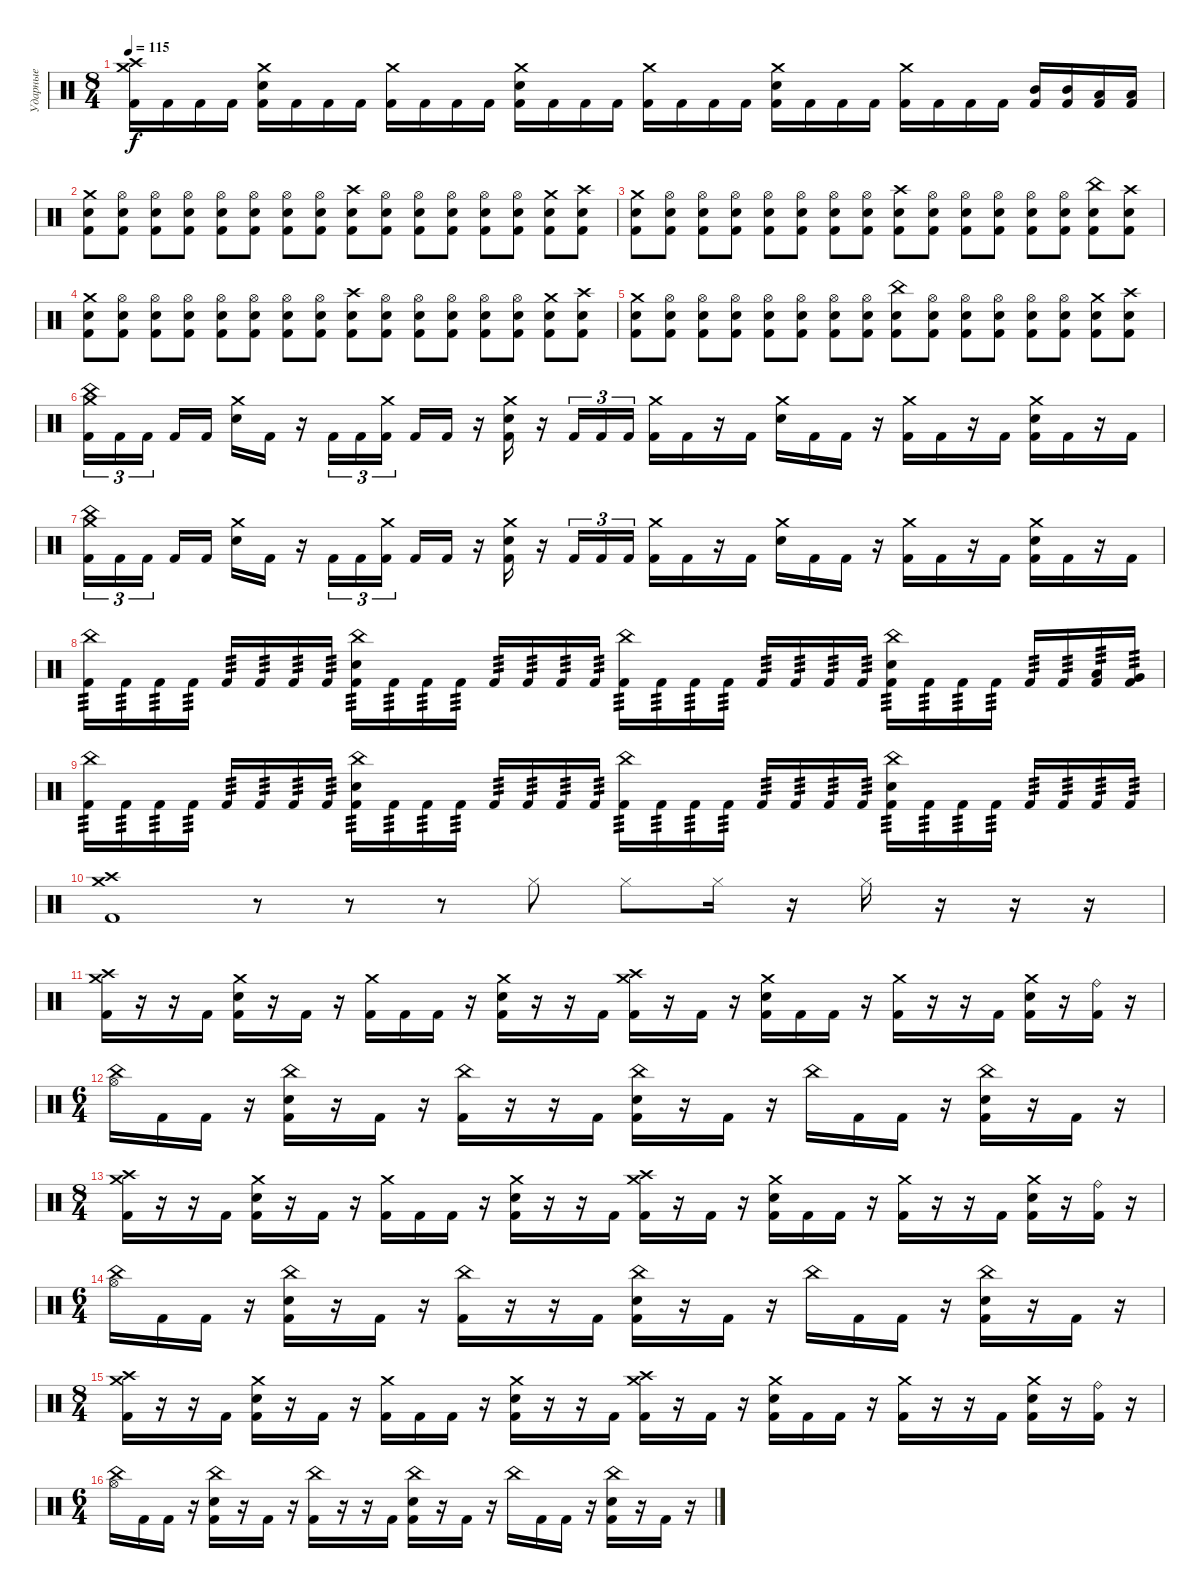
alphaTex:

\track ("Ударные" "Ударные") {instrument percussion}
\staff {score}
\articulation defaults
\ts (8 4)
\tempo 115
\clef neutral
\ks c
("Crash medium (hit)" "Crash high (hit)" "Kick (hit) 2").16{dy f} "Kick (hit) 2".16 "Kick (hit) 2".16 "Kick (hit) 2".16 ("Crash medium (hit)" "Electric Snare (hit)" "Kick (hit) 2").16 "Kick (hit) 2".16 "Kick (hit) 2".16 "Kick (hit) 2".16 ("Crash medium (hit)" "Kick (hit) 2").16 "Kick (hit) 2".16 "Kick (hit) 2".16 "Kick (hit) 2".16 ("Crash medium (hit)" "Electric Snare (hit)" "Kick (hit) 2").16 "Kick (hit) 2".16 "Kick (hit) 2".16 "Kick (hit) 2".16 ("Crash medium (hit)" "Kick (hit) 2").16 "Kick (hit) 2".16 "Kick (hit) 2".16 "Kick (hit) 2".16 ("Crash medium (hit)" "Electric Snare (hit)" "Kick (hit) 2").16 "Kick (hit) 2".16 "Kick (hit) 2".16 "Kick (hit) 2".16 ("Crash medium (hit)" "Kick (hit) 2").16 "Kick (hit) 2".16 "Kick (hit) 2".16 "Kick (hit) 2".16 ("Mid Tom (hit)" "Kick (hit) 2").16 ("Mid Tom (hit)" "Kick (hit) 2").16 ("Low Tom (hit)" "Kick (hit) 2").16 ("Low Tom (hit)" "Kick (hit) 2").16 |
("Crash medium (hit)" "Electric Snare (hit)" "Kick (hit) 2").8 ("Hi-Hat (open)" "Electric Snare (hit)" "Kick (hit) 2").8 ("Hi-Hat (open)" "Electric Snare (hit)" "Kick (hit) 2").8 ("Hi-Hat (open)" "Electric Snare (hit)" "Kick (hit) 2").8 ("Hi-Hat (open)" "Electric Snare (hit)" "Kick (hit) 2").8 ("Hi-Hat (open)" "Electric Snare (hit)" "Kick (hit) 2").8 ("Hi-Hat (open)" "Electric Snare (hit)" "Kick (hit) 2").8 ("Hi-Hat (open)" "Electric Snare (hit)" "Kick (hit) 2").8 ("Crash high (hit)" "Electric Snare (hit)" "Kick (hit) 2").8 ("Hi-Hat (open)" "Electric Snare (hit)" "Kick (hit) 2").8 ("Hi-Hat (open)" "Electric Snare (hit)" "Kick (hit) 2").8 ("Hi-Hat (open)" "Electric Snare (hit)" "Kick (hit) 2").8 ("Hi-Hat (open)" "Electric Snare (hit)" "Kick (hit) 2").8 ("Hi-Hat (open)" "Electric Snare (hit)" "Kick (hit) 2").8 ("Crash medium (hit)" "Electric Snare (hit)" "Kick (hit) 2").8 ("Crash high (hit)" "Electric Snare (hit)" "Kick (hit) 2").8 |
("Crash medium (hit)" "Electric Snare (hit)" "Kick (hit) 2").8 ("Hi-Hat (open)" "Electric Snare (hit)" "Kick (hit) 2").8 ("Hi-Hat (open)" "Electric Snare (hit)" "Kick (hit) 2").8 ("Hi-Hat (open)" "Electric Snare (hit)" "Kick (hit) 2").8 ("Hi-Hat (open)" "Electric Snare (hit)" "Kick (hit) 2").8 ("Hi-Hat (open)" "Electric Snare (hit)" "Kick (hit) 2").8 ("Hi-Hat (open)" "Electric Snare (hit)" "Kick (hit) 2").8 ("Hi-Hat (open)" "Electric Snare (hit)" "Kick (hit) 2").8 ("Crash high (hit)" "Electric Snare (hit)" "Kick (hit) 2").8 ("Hi-Hat (open)" "Electric Snare (hit)" "Kick (hit) 2").8 ("Hi-Hat (open)" "Electric Snare (hit)" "Kick (hit) 2").8 ("Hi-Hat (open)" "Electric Snare (hit)" "Kick (hit) 2").8 ("Hi-Hat (open)" "Electric Snare (hit)" "Kick (hit) 2").8 ("Hi-Hat (open)" "Electric Snare (hit)" "Kick (hit) 2").8 ("China (hit)" "Electric Snare (hit)" "Kick (hit) 2").8 ("Crash high (hit)" "Electric Snare (hit)" "Kick (hit) 2").8 |
("Crash medium (hit)" "Electric Snare (hit)" "Kick (hit) 2").8 ("Hi-Hat (open)" "Electric Snare (hit)" "Kick (hit) 2").8 ("Hi-Hat (open)" "Electric Snare (hit)" "Kick (hit) 2").8 ("Hi-Hat (open)" "Electric Snare (hit)" "Kick (hit) 2").8 ("Hi-Hat (open)" "Electric Snare (hit)" "Kick (hit) 2").8 ("Hi-Hat (open)" "Electric Snare (hit)" "Kick (hit) 2").8 ("Hi-Hat (open)" "Electric Snare (hit)" "Kick (hit) 2").8 ("Hi-Hat (open)" "Electric Snare (hit)" "Kick (hit) 2").8 ("Crash high (hit)" "Electric Snare (hit)" "Kick (hit) 2").8 ("Hi-Hat (open)" "Electric Snare (hit)" "Kick (hit) 2").8 ("Hi-Hat (open)" "Electric Snare (hit)" "Kick (hit) 2").8 ("Hi-Hat (open)" "Electric Snare (hit)" "Kick (hit) 2").8 ("Hi-Hat (open)" "Electric Snare (hit)" "Kick (hit) 2").8 ("Hi-Hat (open)" "Electric Snare (hit)" "Kick (hit) 2").8 ("Crash medium (hit)" "Electric Snare (hit)" "Kick (hit) 2").8 ("Crash high (hit)" "Electric Snare (hit)" "Kick (hit) 2").8 |
("Crash medium (hit)" "Electric Snare (hit)" "Kick (hit) 2").8 ("Hi-Hat (open)" "Electric Snare (hit)" "Kick (hit) 2").8 ("Hi-Hat (open)" "Electric Snare (hit)" "Kick (hit) 2").8 ("Hi-Hat (open)" "Electric Snare (hit)" "Kick (hit) 2").8 ("Hi-Hat (open)" "Electric Snare (hit)" "Kick (hit) 2").8 ("Hi-Hat (open)" "Electric Snare (hit)" "Kick (hit) 2").8 ("Hi-Hat (open)" "Electric Snare (hit)" "Kick (hit) 2").8 ("Hi-Hat (open)" "Electric Snare (hit)" "Kick (hit) 2").8 ("China (hit)" "Electric Snare (hit)" "Kick (hit) 2").8 ("Hi-Hat (open)" "Electric Snare (hit)" "Kick (hit) 2").8 ("Hi-Hat (open)" "Electric Snare (hit)" "Kick (hit) 2").8 ("Hi-Hat (open)" "Electric Snare (hit)" "Kick (hit) 2").8 ("Hi-Hat (open)" "Electric Snare (hit)" "Kick (hit) 2").8 ("Hi-Hat (open)" "Electric Snare (hit)" "Kick (hit) 2").8 ("Crash medium (hit)" "Electric Snare (hit)" "Kick (hit) 2").8 ("Crash high (hit)" "Electric Snare (hit)" "Kick (hit) 2").8 |
("Crash medium (hit)" "China (hit)" "Kick (hit) 2").16{tu (3 2)} "Kick (hit) 2".16{tu (3 2)} "Kick (hit) 2".16{tu (3 2) beam splitsecondary} "Kick (hit) 2".16 "Kick (hit) 2".16 ("Crash medium (hit)" "Electric Snare (hit)").16 "Kick (hit) 2".16 r.16 "Kick (hit) 2".16{tu (3 2)} "Kick (hit) 2".16{tu (3 2)} ("Crash medium (hit)" "Kick (hit) 2").16{tu (3 2) beam splitsecondary} "Kick (hit) 2".16 "Kick (hit) 2".16 r.16 ("Crash medium (hit)" "Electric Snare (hit)" "Kick (hit) 2").16 r.16 "Kick (hit) 2".16{tu (3 2)} "Kick (hit) 2".16{tu (3 2)} "Kick (hit) 2".16{tu (3 2)} ("Crash medium (hit)" "Kick (hit) 2").16 "Kick (hit) 2".16 r.16 "Kick (hit) 2".16 ("Crash medium (hit)" "Electric Snare (hit)").16 "Kick (hit) 2".16 "Kick (hit) 2".16 r.16 ("Crash medium (hit)" "Kick (hit) 2").16 "Kick (hit) 2".16 r.16 "Kick (hit) 2".16 ("Crash medium (hit)" "Electric Snare (hit)" "Kick (hit) 2").16 "Kick (hit) 2".16 r.16 "Kick (hit) 2".16 |
("Crash medium (hit)" "China (hit)" "Kick (hit) 2").16{tu (3 2)} "Kick (hit) 2".16{tu (3 2)} "Kick (hit) 2".16{tu (3 2) beam splitsecondary} "Kick (hit) 2".16 "Kick (hit) 2".16 ("Crash medium (hit)" "Electric Snare (hit)").16 "Kick (hit) 2".16 r.16 "Kick (hit) 2".16{tu (3 2)} "Kick (hit) 2".16{tu (3 2)} ("Crash medium (hit)" "Kick (hit) 2").16{tu (3 2) beam splitsecondary} "Kick (hit) 2".16 "Kick (hit) 2".16 r.16 ("Crash medium (hit)" "Electric Snare (hit)" "Kick (hit) 2").16 r.16 "Kick (hit) 2".16{tu (3 2)} "Kick (hit) 2".16{tu (3 2)} "Kick (hit) 2".16{tu (3 2)} ("Crash medium (hit)" "Kick (hit) 2").16 "Kick (hit) 2".16 r.16 "Kick (hit) 2".16 ("Crash medium (hit)" "Electric Snare (hit)").16 "Kick (hit) 2".16 "Kick (hit) 2".16 r.16 ("Crash medium (hit)" "Kick (hit) 2").16 "Kick (hit) 2".16 r.16 "Kick (hit) 2".16 ("Crash medium (hit)" "Electric Snare (hit)" "Kick (hit) 2").16 "Kick (hit) 2".16 r.16 "Kick (hit) 2".16 |
("China (hit)" "Kick (hit) 2").16{tp 3} "Kick (hit) 2".16{tp 3} "Kick (hit) 2".16{tp 3} "Kick (hit) 2".16{tp 3} "Kick (hit) 2".16{tp 3} "Kick (hit) 2".16{tp 3} "Kick (hit) 2".16{tp 3} "Kick (hit) 2".16{tp 3} ("China (hit)" "Electric Snare (hit)" "Kick (hit) 2").16{tp 3} "Kick (hit) 2".16{tp 3} "Kick (hit) 2".16{tp 3} "Kick (hit) 2".16{tp 3} "Kick (hit) 2".16{tp 3} "Kick (hit) 2".16{tp 3} "Kick (hit) 2".16{tp 3} "Kick (hit) 2".16{tp 3} ("China (hit)" "Kick (hit) 2").16{tp 3} "Kick (hit) 2".16{tp 3} "Kick (hit) 2".16{tp 3} "Kick (hit) 2".16{tp 3} "Kick (hit) 2".16{tp 3} "Kick (hit) 2".16{tp 3} "Kick (hit) 2".16{tp 3} "Kick (hit) 2".16{tp 3} ("China (hit)" "Electric Snare (hit)" "Kick (hit) 2").16{tp 3} "Kick (hit) 2".16{tp 3} "Kick (hit) 2".16{tp 3} "Kick (hit) 2".16{tp 3} "Kick (hit) 2".16{tp 3} "Kick (hit) 2".16{tp 3} ("Low Tom (hit)" "Kick (hit) 2").16{tp 3} ("Very Low Tom (hit)" "Kick (hit) 2").16{tp 3} |
("China (hit)" "Kick (hit) 2").16{tp 3} "Kick (hit) 2".16{tp 3} "Kick (hit) 2".16{tp 3} "Kick (hit) 2".16{tp 3} "Kick (hit) 2".16{tp 3} "Kick (hit) 2".16{tp 3} "Kick (hit) 2".16{tp 3} "Kick (hit) 2".16{tp 3} ("China (hit)" "Electric Snare (hit)" "Kick (hit) 2").16{tp 3} "Kick (hit) 2".16{tp 3} "Kick (hit) 2".16{tp 3} "Kick (hit) 2".16{tp 3} "Kick (hit) 2".16{tp 3} "Kick (hit) 2".16{tp 3} "Kick (hit) 2".16{tp 3} "Kick (hit) 2".16{tp 3} ("China (hit)" "Kick (hit) 2").16{tp 3} "Kick (hit) 2".16{tp 3} "Kick (hit) 2".16{tp 3} "Kick (hit) 2".16{tp 3} "Kick (hit) 2".16{tp 3} "Kick (hit) 2".16{tp 3} "Kick (hit) 2".16{tp 3} "Kick (hit) 2".16{tp 3} ("China (hit)" "Electric Snare (hit)" "Kick (hit) 2").16{tp 3} "Kick (hit) 2".16{tp 3} "Kick (hit) 2".16{tp 3} "Kick (hit) 2".16{tp 3} "Kick (hit) 2".16{tp 3} "Kick (hit) 2".16{tp 3} "Kick (hit) 2".16{tp 3} "Kick (hit) 2".16{tp 3} |
("Crash medium (hit)" "Crash high (hit)" "Kick (hit) 2").1 r.8 r.8 r.8 "Hi-Hat (closed)".8 "Hi-Hat (closed)".8 "Hi-Hat (closed)".16 r.16 "Hi-Hat (closed)".16 r.16 r.16 r.16 |
("Crash medium (hit)" "Crash high (hit)" "Kick (hit) 2").16 r.16 r.16 "Kick (hit) 2".16 ("Crash medium (hit)" "Electric Snare (hit)" "Kick (hit) 2").16 r.16 "Kick (hit) 2".16 r.16 ("Crash medium (hit)" "Kick (hit) 2").16 "Kick (hit) 2".16 "Kick (hit) 2".16 r.16 ("Crash medium (hit)" "Electric Snare (hit)" "Kick (hit) 2").16 r.16 r.16 "Kick (hit) 2".16 ("Crash medium (hit)" "Crash high (hit)" "Kick (hit) 2").16 r.16 "Kick (hit) 2".16 r.16 ("Crash medium (hit)" "Electric Snare (hit)" "Kick (hit) 2").16 "Kick (hit) 2".16 "Kick (hit) 2".16 r.16 ("Crash medium (hit)" "Kick (hit) 2").16 r.16 r.16 "Kick (hit) 2".16 ("Crash medium (hit)" "Electric Snare (hit)" "Kick (hit) 2").16 r.16 ("Ride (bell)" "Kick (hit) 2").16 r.16 |
\ts (6 4)
("China (hit)" "Hi-Hat (open)").16 "Kick (hit) 2".16 "Kick (hit) 2".16 r.16 ("China (hit)" "Electric Snare (hit)" "Kick (hit) 2").16 r.16 "Kick (hit) 2".16 r.16 ("China (hit)" "Kick (hit) 2").16 r.16 r.16 "Kick (hit) 2".16 ("China (hit)" "Electric Snare (hit)" "Kick (hit) 2").16 r.16 "Kick (hit) 2".16 r.16 "China (hit)".16 "Kick (hit) 2".16 "Kick (hit) 2".16 r.16 ("China (hit)" "Electric Snare (hit)" "Kick (hit) 2").16 r.16 "Kick (hit) 2".16 r.16 |
\ts (8 4)
("Crash medium (hit)" "Crash high (hit)" "Kick (hit) 2").16 r.16 r.16 "Kick (hit) 2".16 ("Crash medium (hit)" "Electric Snare (hit)" "Kick (hit) 2").16 r.16 "Kick (hit) 2".16 r.16 ("Crash medium (hit)" "Kick (hit) 2").16 "Kick (hit) 2".16 "Kick (hit) 2".16 r.16 ("Crash medium (hit)" "Electric Snare (hit)" "Kick (hit) 2").16 r.16 r.16 "Kick (hit) 2".16 ("Crash medium (hit)" "Crash high (hit)" "Kick (hit) 2").16 r.16 "Kick (hit) 2".16 r.16 ("Crash medium (hit)" "Electric Snare (hit)" "Kick (hit) 2").16 "Kick (hit) 2".16 "Kick (hit) 2".16 r.16 ("Crash medium (hit)" "Kick (hit) 2").16 r.16 r.16 "Kick (hit) 2".16 ("Crash medium (hit)" "Electric Snare (hit)" "Kick (hit) 2").16 r.16 ("Ride (bell)" "Kick (hit) 2").16 r.16 |
\ts (6 4)
("China (hit)" "Hi-Hat (open)").16 "Kick (hit) 2".16 "Kick (hit) 2".16 r.16 ("China (hit)" "Electric Snare (hit)" "Kick (hit) 2").16 r.16 "Kick (hit) 2".16 r.16 ("China (hit)" "Kick (hit) 2").16 r.16 r.16 "Kick (hit) 2".16 ("China (hit)" "Electric Snare (hit)" "Kick (hit) 2").16 r.16 "Kick (hit) 2".16 r.16 "China (hit)".16 "Kick (hit) 2".16 "Kick (hit) 2".16 r.16 ("China (hit)" "Electric Snare (hit)" "Kick (hit) 2").16 r.16 "Kick (hit) 2".16 r.16 |
\ts (8 4)
("Crash medium (hit)" "Crash high (hit)" "Kick (hit) 2").16 r.16 r.16 "Kick (hit) 2".16 ("Crash medium (hit)" "Electric Snare (hit)" "Kick (hit) 2").16 r.16 "Kick (hit) 2".16 r.16 ("Crash medium (hit)" "Kick (hit) 2").16 "Kick (hit) 2".16 "Kick (hit) 2".16 r.16 ("Crash medium (hit)" "Electric Snare (hit)" "Kick (hit) 2").16 r.16 r.16 "Kick (hit) 2".16 ("Crash medium (hit)" "Crash high (hit)" "Kick (hit) 2").16 r.16 "Kick (hit) 2".16 r.16 ("Crash medium (hit)" "Electric Snare (hit)" "Kick (hit) 2").16 "Kick (hit) 2".16 "Kick (hit) 2".16 r.16 ("Crash medium (hit)" "Kick (hit) 2").16 r.16 r.16 "Kick (hit) 2".16 ("Crash medium (hit)" "Electric Snare (hit)" "Kick (hit) 2").16 r.16 ("Ride (bell)" "Kick (hit) 2").16 r.16 |
\ts (6 4)
("China (hit)" "Hi-Hat (open)").16 "Kick (hit) 2".16 "Kick (hit) 2".16 r.16 ("China (hit)" "Electric Snare (hit)" "Kick (hit) 2").16 r.16 "Kick (hit) 2".16 r.16 ("China (hit)" "Kick (hit) 2").16 r.16 r.16 "Kick (hit) 2".16 ("China (hit)" "Electric Snare (hit)" "Kick (hit) 2").16 r.16 "Kick (hit) 2".16 r.16 "China (hit)".16 "Kick (hit) 2".16 "Kick (hit) 2".16 r.16 ("China (hit)" "Electric Snare (hit)" "Kick (hit) 2").16 r.16 "Kick (hit) 2".16 r.16
